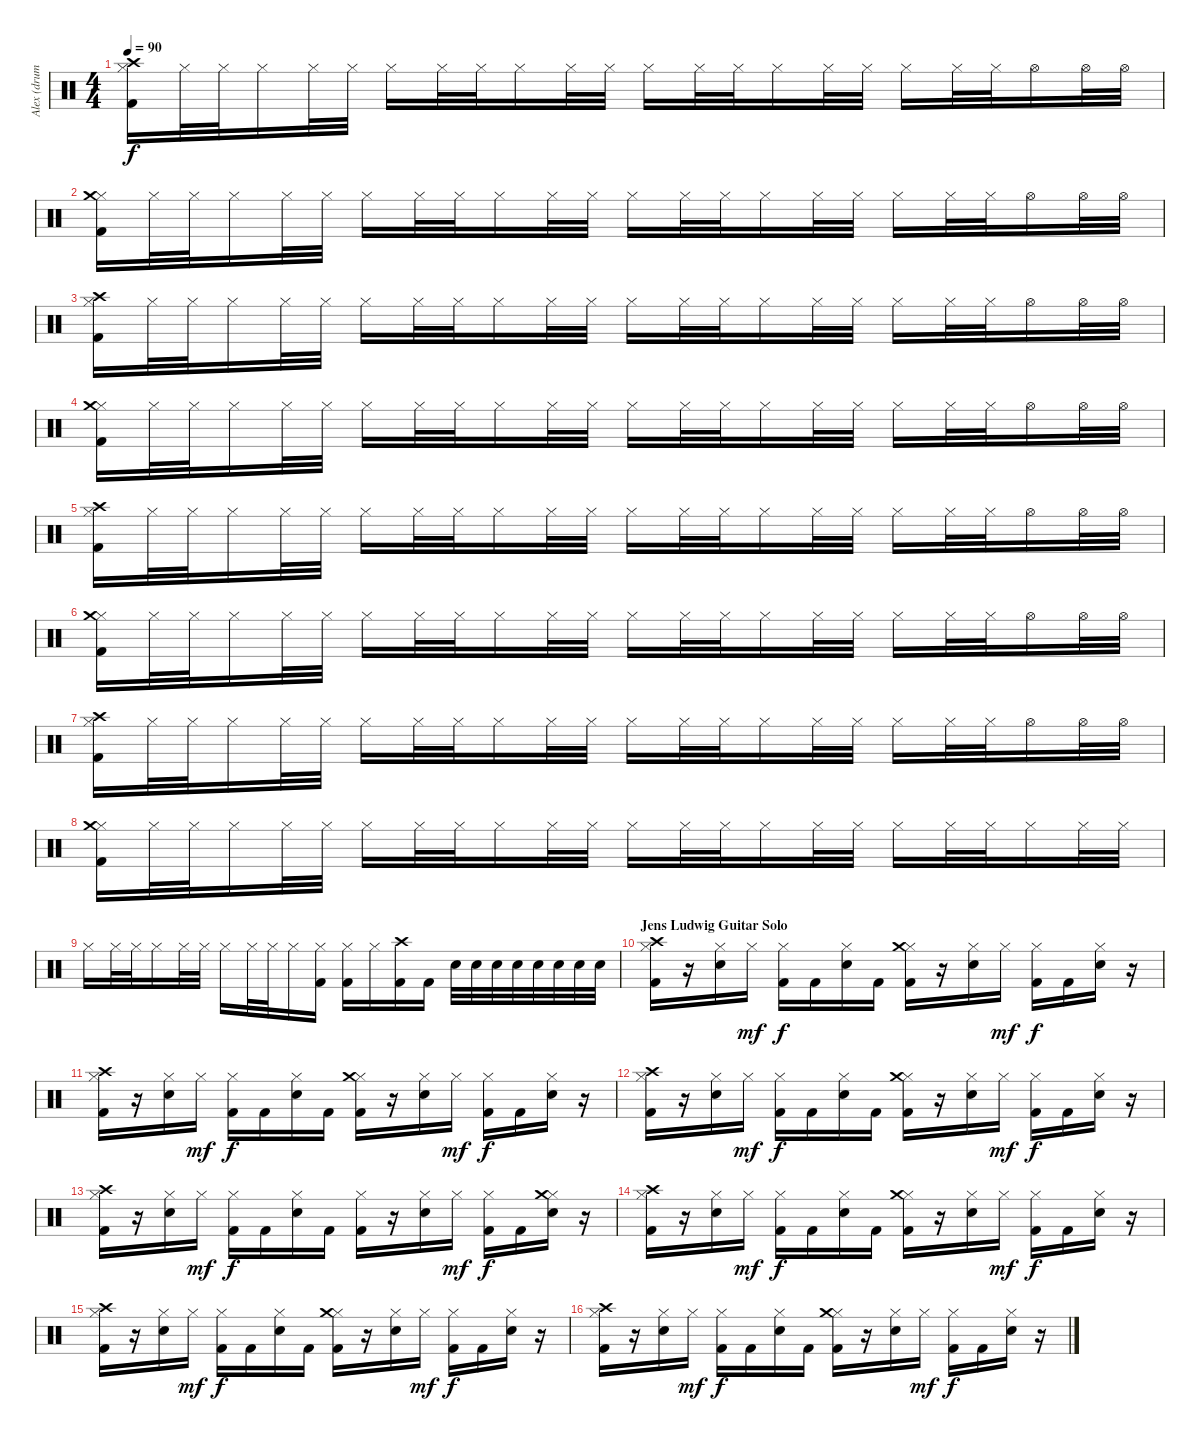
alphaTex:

\track ("Alex (drums)" "Alex (drum") {instrument percussion}
\staff {score}
\articulation defaults
\ts (4 4)
\tempo 90
\clef neutral
\ks c
("Hi-Hat (closed)" "Kick (hit) 2" "Crash high (hit)").16{dy f} "Hi-Hat (closed)".32 "Hi-Hat (closed)".32 "Hi-Hat (closed)".16 "Hi-Hat (closed)".32 "Hi-Hat (closed)".32 "Hi-Hat (closed)".16 "Hi-Hat (closed)".32 "Hi-Hat (closed)".32 "Hi-Hat (closed)".16 "Hi-Hat (closed)".32 "Hi-Hat (closed)".32 "Hi-Hat (closed)".16 "Hi-Hat (closed)".32 "Hi-Hat (closed)".32 "Hi-Hat (closed)".16 "Hi-Hat (closed)".32 "Hi-Hat (closed)".32 "Hi-Hat (closed)".16 "Hi-Hat (closed)".32 "Hi-Hat (closed)".32 "Hi-Hat (open)".16 "Hi-Hat (open)".32 "Hi-Hat (open)".32 |
("Hi-Hat (closed)" "Kick (hit) 2" "Crash medium (hit)").16 "Hi-Hat (closed)".32 "Hi-Hat (closed)".32 "Hi-Hat (closed)".16 "Hi-Hat (closed)".32 "Hi-Hat (closed)".32 "Hi-Hat (closed)".16 "Hi-Hat (closed)".32 "Hi-Hat (closed)".32 "Hi-Hat (closed)".16 "Hi-Hat (closed)".32 "Hi-Hat (closed)".32 "Hi-Hat (closed)".16 "Hi-Hat (closed)".32 "Hi-Hat (closed)".32 "Hi-Hat (closed)".16 "Hi-Hat (closed)".32 "Hi-Hat (closed)".32 "Hi-Hat (closed)".16 "Hi-Hat (closed)".32 "Hi-Hat (closed)".32 "Hi-Hat (open)".16 "Hi-Hat (open)".32 "Hi-Hat (open)".32 |
("Hi-Hat (closed)" "Kick (hit) 2" "Crash high (hit)").16 "Hi-Hat (closed)".32 "Hi-Hat (closed)".32 "Hi-Hat (closed)".16 "Hi-Hat (closed)".32 "Hi-Hat (closed)".32 "Hi-Hat (closed)".16 "Hi-Hat (closed)".32 "Hi-Hat (closed)".32 "Hi-Hat (closed)".16 "Hi-Hat (closed)".32 "Hi-Hat (closed)".32 "Hi-Hat (closed)".16 "Hi-Hat (closed)".32 "Hi-Hat (closed)".32 "Hi-Hat (closed)".16 "Hi-Hat (closed)".32 "Hi-Hat (closed)".32 "Hi-Hat (closed)".16 "Hi-Hat (closed)".32 "Hi-Hat (closed)".32 "Hi-Hat (open)".16 "Hi-Hat (open)".32 "Hi-Hat (open)".32 |
("Hi-Hat (closed)" "Kick (hit) 2" "Crash medium (hit)").16 "Hi-Hat (closed)".32 "Hi-Hat (closed)".32 "Hi-Hat (closed)".16 "Hi-Hat (closed)".32 "Hi-Hat (closed)".32 "Hi-Hat (closed)".16 "Hi-Hat (closed)".32 "Hi-Hat (closed)".32 "Hi-Hat (closed)".16 "Hi-Hat (closed)".32 "Hi-Hat (closed)".32 "Hi-Hat (closed)".16 "Hi-Hat (closed)".32 "Hi-Hat (closed)".32 "Hi-Hat (closed)".16 "Hi-Hat (closed)".32 "Hi-Hat (closed)".32 "Hi-Hat (closed)".16 "Hi-Hat (closed)".32 "Hi-Hat (closed)".32 "Hi-Hat (open)".16 "Hi-Hat (open)".32 "Hi-Hat (open)".32 |
("Hi-Hat (closed)" "Kick (hit) 2" "Crash high (hit)").16 "Hi-Hat (closed)".32 "Hi-Hat (closed)".32 "Hi-Hat (closed)".16 "Hi-Hat (closed)".32 "Hi-Hat (closed)".32 "Hi-Hat (closed)".16 "Hi-Hat (closed)".32 "Hi-Hat (closed)".32 "Hi-Hat (closed)".16 "Hi-Hat (closed)".32 "Hi-Hat (closed)".32 "Hi-Hat (closed)".16 "Hi-Hat (closed)".32 "Hi-Hat (closed)".32 "Hi-Hat (closed)".16 "Hi-Hat (closed)".32 "Hi-Hat (closed)".32 "Hi-Hat (closed)".16 "Hi-Hat (closed)".32 "Hi-Hat (closed)".32 "Hi-Hat (open)".16 "Hi-Hat (open)".32 "Hi-Hat (open)".32 |
("Hi-Hat (closed)" "Kick (hit) 2" "Crash medium (hit)").16 "Hi-Hat (closed)".32 "Hi-Hat (closed)".32 "Hi-Hat (closed)".16 "Hi-Hat (closed)".32 "Hi-Hat (closed)".32 "Hi-Hat (closed)".16 "Hi-Hat (closed)".32 "Hi-Hat (closed)".32 "Hi-Hat (closed)".16 "Hi-Hat (closed)".32 "Hi-Hat (closed)".32 "Hi-Hat (closed)".16 "Hi-Hat (closed)".32 "Hi-Hat (closed)".32 "Hi-Hat (closed)".16 "Hi-Hat (closed)".32 "Hi-Hat (closed)".32 "Hi-Hat (closed)".16 "Hi-Hat (closed)".32 "Hi-Hat (closed)".32 "Hi-Hat (open)".16 "Hi-Hat (open)".32 "Hi-Hat (open)".32 |
("Hi-Hat (closed)" "Kick (hit) 2" "Crash high (hit)").16 "Hi-Hat (closed)".32 "Hi-Hat (closed)".32 "Hi-Hat (closed)".16 "Hi-Hat (closed)".32 "Hi-Hat (closed)".32 "Hi-Hat (closed)".16 "Hi-Hat (closed)".32 "Hi-Hat (closed)".32 "Hi-Hat (closed)".16 "Hi-Hat (closed)".32 "Hi-Hat (closed)".32 "Hi-Hat (closed)".16 "Hi-Hat (closed)".32 "Hi-Hat (closed)".32 "Hi-Hat (closed)".16 "Hi-Hat (closed)".32 "Hi-Hat (closed)".32 "Hi-Hat (closed)".16 "Hi-Hat (closed)".32 "Hi-Hat (closed)".32 "Hi-Hat (open)".16 "Hi-Hat (open)".32 "Hi-Hat (open)".32 |
("Hi-Hat (closed)" "Kick (hit) 2" "Crash medium (hit)").16 "Hi-Hat (closed)".32 "Hi-Hat (closed)".32 "Hi-Hat (closed)".16 "Hi-Hat (closed)".32 "Hi-Hat (closed)".32 "Hi-Hat (closed)".16 "Hi-Hat (closed)".32 "Hi-Hat (closed)".32 "Hi-Hat (closed)".16 "Hi-Hat (closed)".32 "Hi-Hat (closed)".32 "Hi-Hat (closed)".16 "Hi-Hat (closed)".32 "Hi-Hat (closed)".32 "Hi-Hat (closed)".16 "Hi-Hat (closed)".32 "Hi-Hat (closed)".32 "Hi-Hat (closed)".16 "Hi-Hat (closed)".32 "Hi-Hat (closed)".32 "Hi-Hat (closed)".16 "Hi-Hat (closed)".32 "Hi-Hat (closed)".32 |
"Hi-Hat (closed)".16 "Hi-Hat (closed)".32 "Hi-Hat (closed)".32 "Hi-Hat (closed)".16 "Hi-Hat (closed)".32 "Hi-Hat (closed)".32 "Hi-Hat (closed)".16 "Hi-Hat (closed)".32 "Hi-Hat (closed)".32 "Hi-Hat (closed)".16 ("Hi-Hat (closed)" "Kick (hit) 2").16 ("Hi-Hat (closed)" "Kick (hit) 2").16 "Hi-Hat (closed)".16 ("Kick (hit) 2" "Crash high (hit)").16 "Kick (hit) 2".16 "Snare (hit) 2".32 "Snare (hit) 2".32 "Snare (hit) 2".32 "Snare (hit) 2".32 "Snare (hit) 2".32 "Snare (hit) 2".32 "Snare (hit) 2".32 "Snare (hit) 2".32 |
\section ("" "Jens Ludwig Guitar Solo")
("Hi-Hat (closed)" "Kick (hit) 2" "Crash high (hit)").16 r.16 ("Hi-Hat (closed)" "Snare (hit) 2").16 "Hi-Hat (closed)".16{dy mf} ("Hi-Hat (closed)" "Kick (hit) 2").16{dy f} "Kick (hit) 2".16 ("Hi-Hat (closed)" "Snare (hit) 2").16 "Kick (hit) 2".16 ("Hi-Hat (closed)" "Kick (hit) 2" "Crash medium (hit)").16 r.16 ("Hi-Hat (closed)" "Snare (hit) 2").16 "Hi-Hat (closed)".16{dy mf} ("Hi-Hat (closed)" "Kick (hit) 2").16{dy f} "Kick (hit) 2".16 ("Hi-Hat (closed)" "Snare (hit) 2").16 r.16 |
("Hi-Hat (closed)" "Kick (hit) 2" "Crash high (hit)").16 r.16 ("Hi-Hat (closed)" "Snare (hit) 2").16 "Hi-Hat (closed)".16{dy mf} ("Hi-Hat (closed)" "Kick (hit) 2").16{dy f} "Kick (hit) 2".16 ("Hi-Hat (closed)" "Snare (hit) 2").16 "Kick (hit) 2".16 ("Hi-Hat (closed)" "Kick (hit) 2" "Crash medium (hit)").16 r.16 ("Hi-Hat (closed)" "Snare (hit) 2").16 "Hi-Hat (closed)".16{dy mf} ("Hi-Hat (closed)" "Kick (hit) 2").16{dy f} "Kick (hit) 2".16 ("Hi-Hat (closed)" "Snare (hit) 2").16 r.16 |
("Hi-Hat (closed)" "Kick (hit) 2" "Crash high (hit)").16 r.16 ("Hi-Hat (closed)" "Snare (hit) 2").16 "Hi-Hat (closed)".16{dy mf} ("Hi-Hat (closed)" "Kick (hit) 2").16{dy f} "Kick (hit) 2".16 ("Hi-Hat (closed)" "Snare (hit) 2").16 "Kick (hit) 2".16 ("Hi-Hat (closed)" "Kick (hit) 2" "Crash medium (hit)").16 r.16 ("Hi-Hat (closed)" "Snare (hit) 2").16 "Hi-Hat (closed)".16{dy mf} ("Hi-Hat (closed)" "Kick (hit) 2").16{dy f} "Kick (hit) 2".16 ("Hi-Hat (closed)" "Snare (hit) 2").16 r.16 |
("Hi-Hat (closed)" "Kick (hit) 2" "Crash high (hit)").16 r.16 ("Hi-Hat (closed)" "Snare (hit) 2").16 "Hi-Hat (closed)".16{dy mf} ("Hi-Hat (closed)" "Kick (hit) 2").16{dy f} "Kick (hit) 2".16 ("Hi-Hat (closed)" "Snare (hit) 2").16 "Kick (hit) 2".16 ("Hi-Hat (closed)" "Kick (hit) 2").16 r.16 ("Hi-Hat (closed)" "Snare (hit) 2").16 "Hi-Hat (closed)".16{dy mf} ("Hi-Hat (closed)" "Kick (hit) 2").16{dy f} "Kick (hit) 2".16 ("Hi-Hat (closed)" "Snare (hit) 2" "Crash medium (hit)").16 r.16 |
("Hi-Hat (closed)" "Kick (hit) 2" "Crash high (hit)").16 r.16 ("Hi-Hat (closed)" "Snare (hit) 2").16 "Hi-Hat (closed)".16{dy mf} ("Hi-Hat (closed)" "Kick (hit) 2").16{dy f} "Kick (hit) 2".16 ("Hi-Hat (closed)" "Snare (hit) 2").16 "Kick (hit) 2".16 ("Hi-Hat (closed)" "Kick (hit) 2" "Crash medium (hit)").16 r.16 ("Hi-Hat (closed)" "Snare (hit) 2").16 "Hi-Hat (closed)".16{dy mf} ("Hi-Hat (closed)" "Kick (hit) 2").16{dy f} "Kick (hit) 2".16 ("Hi-Hat (closed)" "Snare (hit) 2").16 r.16 |
("Hi-Hat (closed)" "Kick (hit) 2" "Crash high (hit)").16 r.16 ("Hi-Hat (closed)" "Snare (hit) 2").16 "Hi-Hat (closed)".16{dy mf} ("Hi-Hat (closed)" "Kick (hit) 2").16{dy f} "Kick (hit) 2".16 ("Hi-Hat (closed)" "Snare (hit) 2").16 "Kick (hit) 2".16 ("Hi-Hat (closed)" "Kick (hit) 2" "Crash medium (hit)").16 r.16 ("Hi-Hat (closed)" "Snare (hit) 2").16 "Hi-Hat (closed)".16{dy mf} ("Hi-Hat (closed)" "Kick (hit) 2").16{dy f} "Kick (hit) 2".16 ("Hi-Hat (closed)" "Snare (hit) 2").16 r.16 |
("Hi-Hat (closed)" "Kick (hit) 2" "Crash high (hit)").16 r.16 ("Hi-Hat (closed)" "Snare (hit) 2").16 "Hi-Hat (closed)".16{dy mf} ("Hi-Hat (closed)" "Kick (hit) 2").16{dy f} "Kick (hit) 2".16 ("Hi-Hat (closed)" "Snare (hit) 2").16 "Kick (hit) 2".16 ("Hi-Hat (closed)" "Kick (hit) 2" "Crash medium (hit)").16 r.16 ("Hi-Hat (closed)" "Snare (hit) 2").16 "Hi-Hat (closed)".16{dy mf} ("Hi-Hat (closed)" "Kick (hit) 2").16{dy f} "Kick (hit) 2".16 ("Hi-Hat (closed)" "Snare (hit) 2").16 r.16
